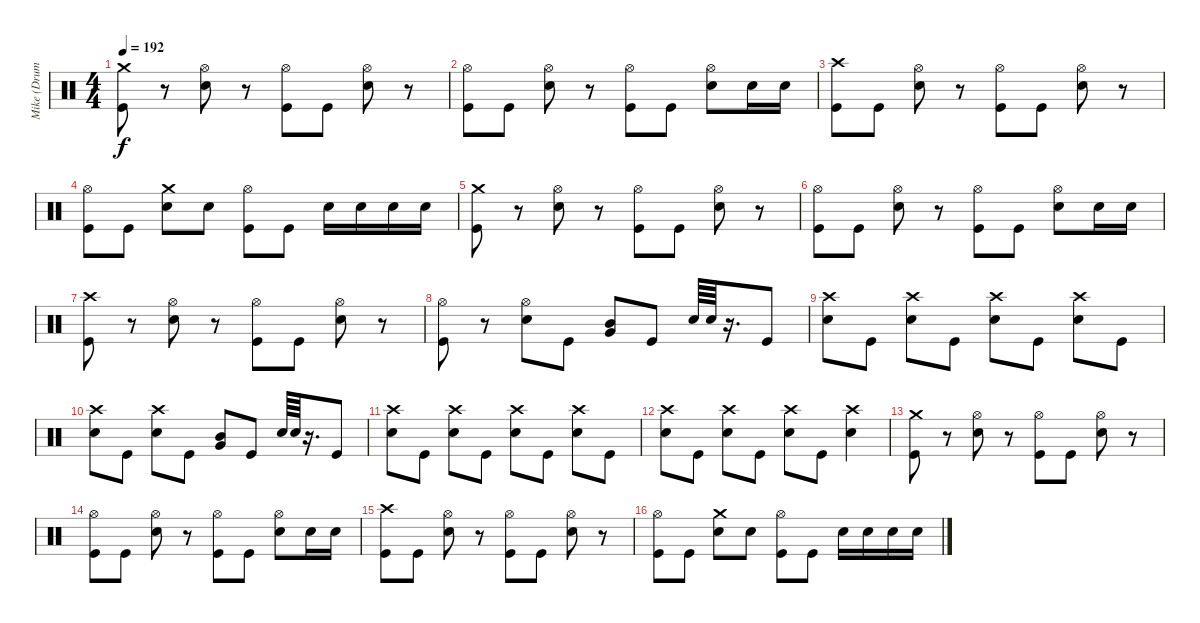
\track ("Mike (Drums)" "Mike (Drum") {instrument percussion}
\staff {score}
\articulation defaults
\ts (4 4)
\tempo 192
\clef neutral
\ks c
("Crash medium (hit)" "Kick (hit)").8{dy f} r.8 ("Hi-Hat (open)" "Snare (hit) 2").8 r.8 ("Hi-Hat (open)" "Kick (hit)").8 "Kick (hit)".8 ("Hi-Hat (open)" "Snare (hit) 2").8 r.8 |
("Hi-Hat (open)" "Kick (hit)").8 "Kick (hit)".8 ("Hi-Hat (open)" "Snare (hit) 2").8 r.8 ("Hi-Hat (open)" "Kick (hit)").8 "Kick (hit)".8 ("Hi-Hat (open)" "Snare (hit) 2").8 "Snare (hit) 2".16 "Snare (hit) 2".16 |
("Crash high (hit)" "Kick (hit)").8 "Kick (hit)".8 ("Hi-Hat (open)" "Snare (hit) 2").8 r.8 ("Hi-Hat (open)" "Kick (hit)").8 "Kick (hit)".8 ("Hi-Hat (open)" "Snare (hit) 2").8 r.8 |
("Hi-Hat (open)" "Kick (hit)").8 "Kick (hit)".8 ("Crash medium (hit)" "Snare (hit) 2").8 "Snare (hit) 2".8 ("Hi-Hat (open)" "Kick (hit)").8 "Kick (hit)".8 "Snare (hit) 2".16 "Snare (hit) 2".16 "Snare (hit) 2".16 "Snare (hit) 2".16 |
("Crash medium (hit)" "Kick (hit)").8 r.8 ("Hi-Hat (open)" "Snare (hit) 2").8 r.8 ("Hi-Hat (open)" "Kick (hit)").8 "Kick (hit)".8 ("Hi-Hat (open)" "Snare (hit) 2").8 r.8 |
("Hi-Hat (open)" "Kick (hit)").8 "Kick (hit)".8 ("Hi-Hat (open)" "Snare (hit) 2").8 r.8 ("Hi-Hat (open)" "Kick (hit)").8 "Kick (hit)".8 ("Hi-Hat (open)" "Snare (hit) 2").8 "Snare (hit) 2".16 "Snare (hit) 2".16 |
("Crash high (hit)" "Kick (hit)").8 r.8 ("Hi-Hat (open)" "Snare (hit) 2").8 r.8 ("Hi-Hat (open)" "Kick (hit)").8 "Kick (hit)".8 ("Hi-Hat (open)" "Snare (hit) 2").8 r.8 |
("Hi-Hat (open)" "Kick (hit)").8 r.8 ("Hi-Hat (open)" "Snare (hit) 2").8 "Kick (hit)".8 ("Mid Tom (hit)" "Very Low Tom (hit)").8 "Kick (hit)".8 "Snare (hit) 2".64 "Snare (hit) 2".64 r.16{d} "Kick (hit)".8 |
("Crash high (hit)" "Snare (hit) 2").8 "Kick (hit)".8 ("Crash high (hit)" "Snare (hit) 2").8 "Kick (hit)".8 ("Crash high (hit)" "Snare (hit) 2").8 "Kick (hit)".8 ("Crash high (hit)" "Snare (hit) 2").8 "Kick (hit)".8 |
("Crash high (hit)" "Snare (hit) 2").8 "Kick (hit)".8 ("Crash high (hit)" "Snare (hit) 2").8 "Kick (hit)".8 ("Mid Tom (hit)" "Very Low Tom (hit)").8 "Kick (hit)".8 "Snare (hit) 2".64 "Snare (hit) 2".64 r.16{d} "Kick (hit)".8 |
("Crash high (hit)" "Snare (hit) 2").8 "Kick (hit)".8 ("Crash high (hit)" "Snare (hit) 2").8 "Kick (hit)".8 ("Crash high (hit)" "Snare (hit) 2").8 "Kick (hit)".8 ("Crash high (hit)" "Snare (hit) 2").8 "Kick (hit)".8 |
("Crash high (hit)" "Snare (hit) 2").8 "Kick (hit)".8 ("Crash high (hit)" "Snare (hit) 2").8 "Kick (hit)".8 ("Crash high (hit)" "Snare (hit) 2").8 "Kick (hit)".8 ("Crash high (hit)" "Snare (hit) 2").4 |
("Crash medium (hit)" "Kick (hit)").8 r.8 ("Hi-Hat (open)" "Snare (hit) 2").8 r.8 ("Hi-Hat (open)" "Kick (hit)").8 "Kick (hit)".8 ("Hi-Hat (open)" "Snare (hit) 2").8 r.8 |
("Hi-Hat (open)" "Kick (hit)").8 "Kick (hit)".8 ("Hi-Hat (open)" "Snare (hit) 2").8 r.8 ("Hi-Hat (open)" "Kick (hit)").8 "Kick (hit)".8 ("Hi-Hat (open)" "Snare (hit) 2").8 "Snare (hit) 2".16 "Snare (hit) 2".16 |
("Crash high (hit)" "Kick (hit)").8 "Kick (hit)".8 ("Hi-Hat (open)" "Snare (hit) 2").8 r.8 ("Hi-Hat (open)" "Kick (hit)").8 "Kick (hit)".8 ("Hi-Hat (open)" "Snare (hit) 2").8 r.8 |
("Hi-Hat (open)" "Kick (hit)").8 "Kick (hit)".8 ("Crash medium (hit)" "Snare (hit) 2").8 "Snare (hit) 2".8 ("Hi-Hat (open)" "Kick (hit)").8 "Kick (hit)".8 "Snare (hit) 2".16 "Snare (hit) 2".16 "Snare (hit) 2".16 "Snare (hit) 2".16
